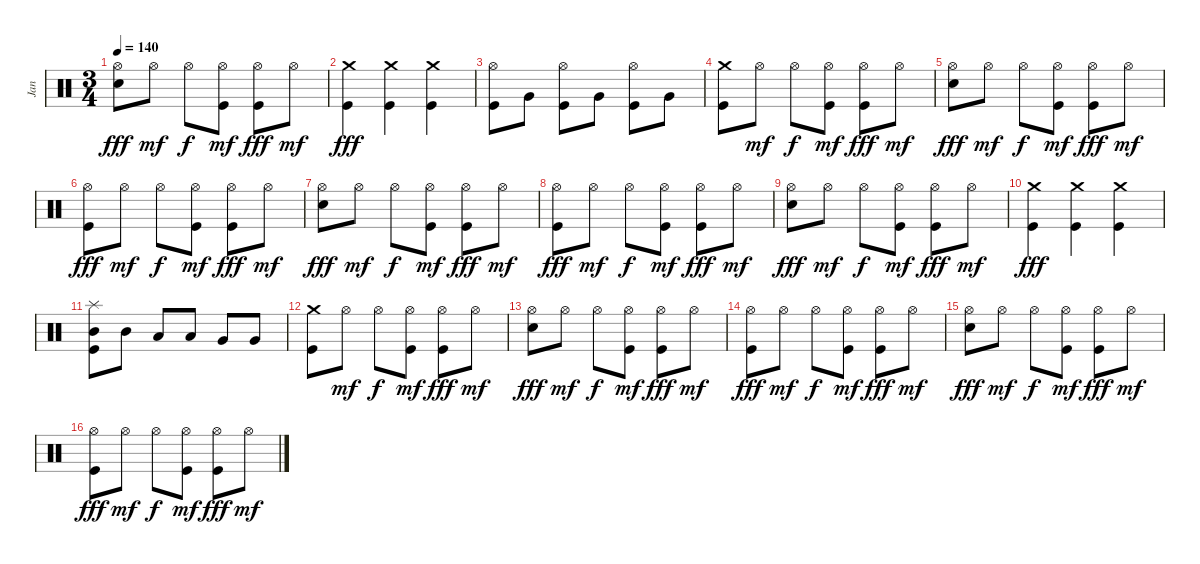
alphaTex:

\track ("Jan" "Jan") {instrument percussion}
\staff {score}
\articulation defaults
\ts (3 4)
\tempo 140
\clef neutral
\ks c
("Snare (hit) 2" "Hi-Hat (open)").8{dy fff} "Hi-Hat (open)".8{dy mf} "Hi-Hat (open)".8{dy f} ("Kick (hit)" "Hi-Hat (open)").8{dy mf} ("Kick (hit)" "Hi-Hat (open)").8{dy fff} "Hi-Hat (open)".8{dy mf} |
("Kick (hit)" "Crash medium (hit)").4{dy fff} ("Kick (hit)" "Crash medium (hit)").4 ("Kick (hit)" "Crash medium (hit)").4 |
("Kick (hit)" "Hi-Hat (open)").8 "Very Low Tom (hit)".8 ("Kick (hit)" "Hi-Hat (open)").8 "Very Low Tom (hit)".8 ("Kick (hit)" "Hi-Hat (open)").8 "Very Low Tom (hit)".8 |
("Kick (hit)" "Crash medium (hit)").8 "Hi-Hat (open)".8{dy mf} "Hi-Hat (open)".8{dy f} ("Kick (hit)" "Hi-Hat (open)").8{dy mf} ("Kick (hit)" "Hi-Hat (open)").8{dy fff} "Hi-Hat (open)".8{dy mf} |
("Snare (hit) 2" "Hi-Hat (open)").8{dy fff} "Hi-Hat (open)".8{dy mf} "Hi-Hat (open)".8{dy f} ("Kick (hit)" "Hi-Hat (open)").8{dy mf} ("Kick (hit)" "Hi-Hat (open)").8{dy fff} "Hi-Hat (open)".8{dy mf} |
("Kick (hit)" "Hi-Hat (open)").8{dy fff} "Hi-Hat (open)".8{dy mf} "Hi-Hat (open)".8{dy f} ("Kick (hit)" "Hi-Hat (open)").8{dy mf} ("Kick (hit)" "Hi-Hat (open)").8{dy fff} "Hi-Hat (open)".8{dy mf} |
("Snare (hit) 2" "Hi-Hat (open)").8{dy fff} "Hi-Hat (open)".8{dy mf} "Hi-Hat (open)".8{dy f} ("Kick (hit)" "Hi-Hat (open)").8{dy mf} ("Kick (hit)" "Hi-Hat (open)").8{dy fff} "Hi-Hat (open)".8{dy mf} |
("Kick (hit)" "Hi-Hat (open)").8{dy fff} "Hi-Hat (open)".8{dy mf} "Hi-Hat (open)".8{dy f} ("Kick (hit)" "Hi-Hat (open)").8{dy mf} ("Kick (hit)" "Hi-Hat (open)").8{dy fff} "Hi-Hat (open)".8{dy mf} |
("Snare (hit) 2" "Hi-Hat (open)").8{dy fff} "Hi-Hat (open)".8{dy mf} "Hi-Hat (open)".8{dy f} ("Kick (hit)" "Hi-Hat (open)").8{dy mf} ("Kick (hit)" "Hi-Hat (open)").8{dy fff} "Hi-Hat (open)".8{dy mf} |
("Kick (hit)" "Crash medium (hit)").4{dy fff} ("Kick (hit)" "Crash medium (hit)").4 ("Kick (hit)" "Crash medium (hit)").4 |
("Kick (hit)" "Mid Tom (hit)" "Splash (hit)").8 "Mid Tom (hit)".8 "Low Tom (hit)".8 "Low Tom (hit)".8 "Very Low Tom (hit)".8 "Very Low Tom (hit)".8 |
("Kick (hit)" "Crash medium (hit)").8 "Hi-Hat (open)".8{dy mf} "Hi-Hat (open)".8{dy f} ("Kick (hit)" "Hi-Hat (open)").8{dy mf} ("Kick (hit)" "Hi-Hat (open)").8{dy fff} "Hi-Hat (open)".8{dy mf} |
("Snare (hit) 2" "Hi-Hat (open)").8{dy fff} "Hi-Hat (open)".8{dy mf} "Hi-Hat (open)".8{dy f} ("Kick (hit)" "Hi-Hat (open)").8{dy mf} ("Kick (hit)" "Hi-Hat (open)").8{dy fff} "Hi-Hat (open)".8{dy mf} |
("Kick (hit)" "Hi-Hat (open)").8{dy fff} "Hi-Hat (open)".8{dy mf} "Hi-Hat (open)".8{dy f} ("Kick (hit)" "Hi-Hat (open)").8{dy mf} ("Kick (hit)" "Hi-Hat (open)").8{dy fff} "Hi-Hat (open)".8{dy mf} |
("Snare (hit) 2" "Hi-Hat (open)").8{dy fff} "Hi-Hat (open)".8{dy mf} "Hi-Hat (open)".8{dy f} ("Kick (hit)" "Hi-Hat (open)").8{dy mf} ("Kick (hit)" "Hi-Hat (open)").8{dy fff} "Hi-Hat (open)".8{dy mf} |
("Kick (hit)" "Hi-Hat (open)").8{dy fff} "Hi-Hat (open)".8{dy mf} "Hi-Hat (open)".8{dy f} ("Kick (hit)" "Hi-Hat (open)").8{dy mf} ("Kick (hit)" "Hi-Hat (open)").8{dy fff} "Hi-Hat (open)".8{dy mf}
